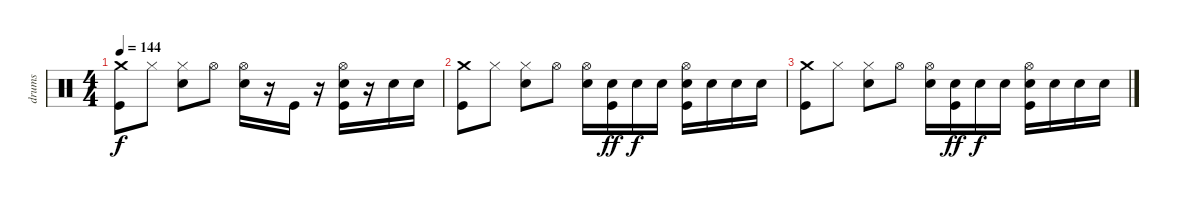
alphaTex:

\track ("drums" "drums") {instrument percussion}
\staff {score}
\articulation defaults
\ts (4 4)
\tempo 144
\clef neutral
\ks c
("Crash medium (hit)" "Kick (hit)").8{dy f} "Hi-Hat (closed)".8 ("Hi-Hat (closed)" "Electric Snare (hit)").8 "Hi-Hat (open)".8 ("Hi-Hat (open)" "Electric Snare (hit)").16 r.16 "Kick (hit)".16 r.16 ("Hi-Hat (open)" "Electric Snare (hit)" "Kick (hit)").16 r.16 "Electric Snare (hit)".16 "Electric Snare (hit)".16 |
("Crash medium (hit)" "Kick (hit)").8{volume 0} "Hi-Hat (closed)".8 ("Hi-Hat (closed)" "Electric Snare (hit)").8 "Hi-Hat (open)".8 ("Hi-Hat (open)" "Electric Snare (hit)").16 ("Electric Snare (hit)" "Kick (hit)").16{dy ff} "Electric Snare (hit)".16{dy f} "Electric Snare (hit)".16 ("Hi-Hat (open)" "Electric Snare (hit)" "Kick (hit)").16 "Electric Snare (hit)".16 "Electric Snare (hit)".16 "Electric Snare (hit)".16 |
("Crash medium (hit)" "Kick (hit)").8 "Hi-Hat (closed)".8 ("Hi-Hat (closed)" "Electric Snare (hit)").8 "Hi-Hat (open)".8 ("Hi-Hat (open)" "Electric Snare (hit)").16 ("Electric Snare (hit)" "Kick (hit)").16{dy ff} "Electric Snare (hit)".16{dy f} "Electric Snare (hit)".16 ("Hi-Hat (open)" "Electric Snare (hit)" "Kick (hit)").16 "Electric Snare (hit)".16 "Electric Snare (hit)".16 "Electric Snare (hit)".16
